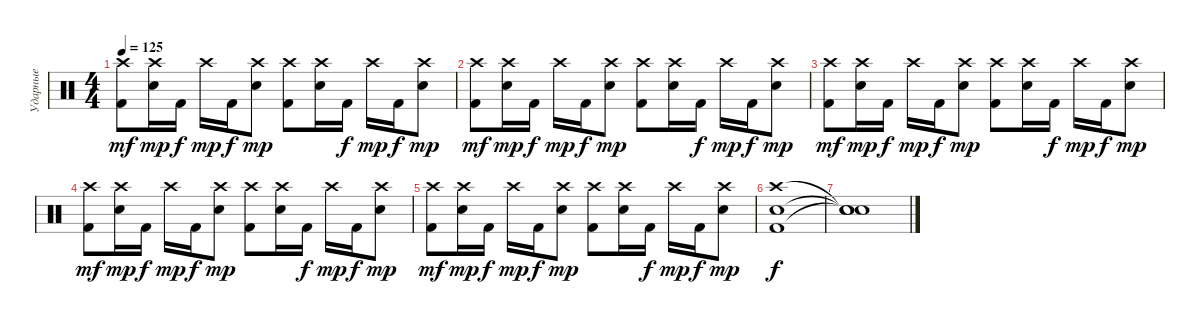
\track ("Ударные" "Ударные") {instrument percussion}
\staff {score}
\articulation defaults
\ts (4 4)
\tempo 125
\clef neutral
\ks c
("Crash high (hit)" "Kick (hit) 2").8{dy mf} ("Crash high (hit)" "Electric Snare (hit)").16{dy mp} "Kick (hit) 2".16{dy f} "Crash high (hit)".16{dy mp} "Kick (hit) 2".16{dy f} ("Crash high (hit)" "Electric Snare (hit)").8{dy mp} ("Crash high (hit)" "Kick (hit) 2").8 ("Crash high (hit)" "Electric Snare (hit)").16 "Kick (hit) 2".16{dy f} "Crash high (hit)".16{dy mp} "Kick (hit) 2".16{dy f} ("Crash high (hit)" "Electric Snare (hit)").8{dy mp} |
("Crash high (hit)" "Kick (hit) 2").8{dy mf} ("Crash high (hit)" "Electric Snare (hit)").16{dy mp} "Kick (hit) 2".16{dy f} "Crash high (hit)".16{dy mp} "Kick (hit) 2".16{dy f} ("Crash high (hit)" "Electric Snare (hit)").8{dy mp} ("Crash high (hit)" "Kick (hit) 2").8 ("Crash high (hit)" "Electric Snare (hit)").16 "Kick (hit) 2".16{dy f} "Crash high (hit)".16{dy mp} "Kick (hit) 2".16{dy f} ("Crash high (hit)" "Electric Snare (hit)").8{dy mp} |
("Crash high (hit)" "Kick (hit) 2").8{dy mf} ("Crash high (hit)" "Electric Snare (hit)").16{dy mp} "Kick (hit) 2".16{dy f} "Crash high (hit)".16{dy mp} "Kick (hit) 2".16{dy f} ("Crash high (hit)" "Electric Snare (hit)").8{dy mp} ("Crash high (hit)" "Kick (hit) 2").8 ("Crash high (hit)" "Electric Snare (hit)").16 "Kick (hit) 2".16{dy f} "Crash high (hit)".16{dy mp} "Kick (hit) 2".16{dy f} ("Crash high (hit)" "Electric Snare (hit)").8{dy mp} |
("Crash high (hit)" "Kick (hit) 2").8{dy mf} ("Crash high (hit)" "Electric Snare (hit)").16{dy mp} "Kick (hit) 2".16{dy f} "Crash high (hit)".16{dy mp} "Kick (hit) 2".16{dy f} ("Crash high (hit)" "Electric Snare (hit)").8{dy mp} ("Crash high (hit)" "Kick (hit) 2").8 ("Crash high (hit)" "Electric Snare (hit)").16 "Kick (hit) 2".16{dy f} "Crash high (hit)".16{dy mp} "Kick (hit) 2".16{dy f} ("Crash high (hit)" "Electric Snare (hit)").8{dy mp} |
("Crash high (hit)" "Kick (hit) 2").8{dy mf} ("Crash high (hit)" "Electric Snare (hit)").16{dy mp} "Kick (hit) 2".16{dy f} "Crash high (hit)".16{dy mp} "Kick (hit) 2".16{dy f} ("Crash high (hit)" "Electric Snare (hit)").8{dy mp} ("Crash high (hit)" "Kick (hit) 2").8 ("Crash high (hit)" "Electric Snare (hit)").16 "Kick (hit) 2".16{dy f} "Crash high (hit)".16{dy mp} "Kick (hit) 2".16{dy f} ("Crash high (hit)" "Electric Snare (hit)").8{dy mp} |
("Crash high (hit)" "Electric Snare (hit)" "Kick (hit) 2").1{dy f} |
("Snare (hit)"{t} "Snare (hit)"{t} "Snare (hit)"{t}).1
